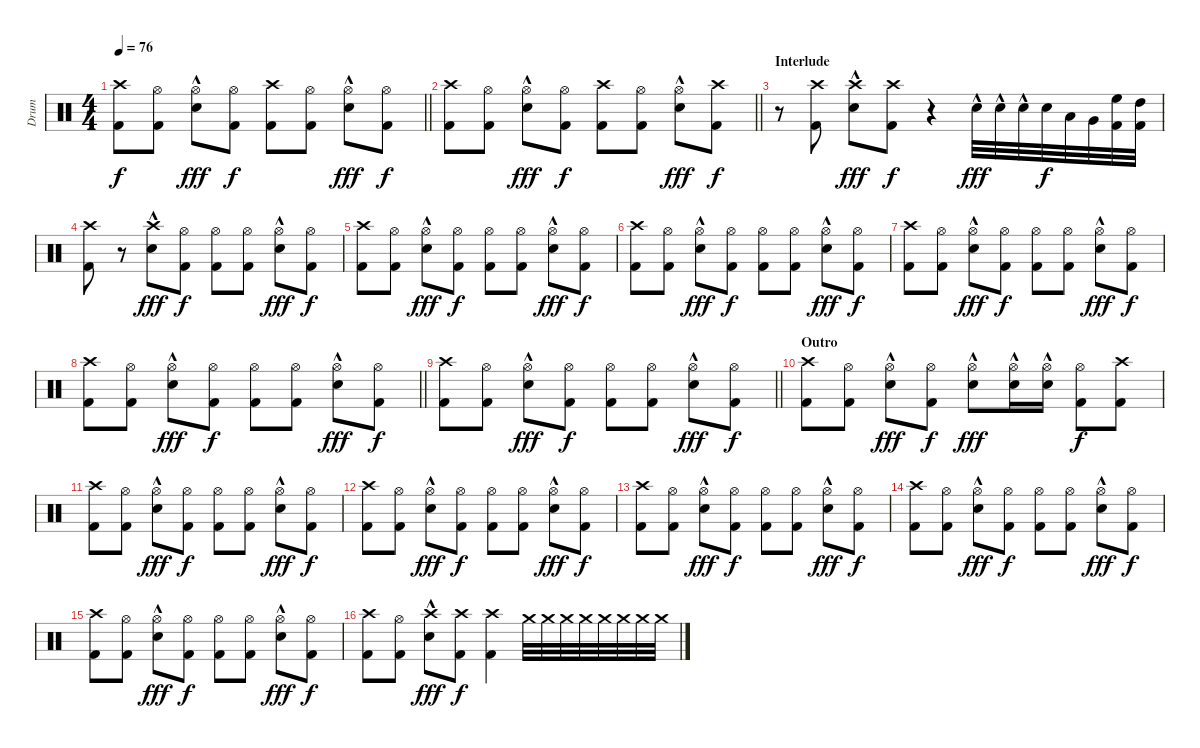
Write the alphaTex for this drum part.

\track ("Drum" "Drum") {instrument percussion}
\staff {score}
\articulation defaults
\ts (4 4)
\tempo 76
\clef neutral
\barLineRight lightlight
\ks c
("Crash high (hit)" "Kick (hit) 2").8{dy f} ("Hi-Hat (open)" "Kick (hit) 2").8 ("Hi-Hat (open)" "Electric Snare (hit)"{hac}).8{dy fff} ("Hi-Hat (open)" "Kick (hit) 2").8{dy f} ("Crash high (hit)" "Kick (hit) 2").8 ("Hi-Hat (open)" "Kick (hit) 2").8 ("Hi-Hat (open)" "Electric Snare (hit)"{hac}).8{dy fff} ("Hi-Hat (open)" "Kick (hit) 2").8{dy f} |
\barLineRight lightlight
("Crash high (hit)" "Kick (hit) 2").8 ("Hi-Hat (open)" "Kick (hit) 2").8 ("Hi-Hat (open)" "Electric Snare (hit)"{hac}).8{dy fff} ("Hi-Hat (open)" "Kick (hit) 2").8{dy f} ("Crash high (hit)" "Kick (hit) 2").8 ("Hi-Hat (open)" "Kick (hit) 2").8 ("Hi-Hat (open)" "Electric Snare (hit)"{hac}).8{dy fff} ("Crash high (hit)" "Kick (hit) 2").8{dy f} |
\section ("" "Interlude")
r.8 ("Crash high (hit)" "Kick (hit) 2").8 ("Crash high (hit)" "Electric Snare (hit)"{hac}).8{dy fff} ("Crash high (hit)" "Kick (hit) 2").8{dy f} r.4 "Electric Snare (hit)"{hac}.32{dy fff} "Electric Snare (hit)"{hac}.32 "Electric Snare (hit)"{hac}.32 "Snare (hit) 2".32{dy f} "Low Tom (hit)".32 "Very Low Tom (hit)".32 ("High Floor Tom (hit)" "Kick (hit) 2").32 ("High Tom (hit)" "Kick (hit) 2").32 |
("Crash high (hit)" "Kick (hit) 2").8 r.8 ("Crash high (hit)" "Electric Snare (hit)"{hac}).8{dy fff} ("Hi-Hat (open)" "Kick (hit) 2").8{dy f} ("Hi-Hat (open)" "Kick (hit) 2").8 ("Hi-Hat (open)" "Kick (hit) 2").8 ("Hi-Hat (open)" "Electric Snare (hit)"{hac}).8{dy fff} ("Hi-Hat (open)" "Kick (hit) 2").8{dy f} |
("Crash high (hit)" "Kick (hit) 2").8 ("Hi-Hat (open)" "Kick (hit) 2").8 ("Hi-Hat (open)" "Electric Snare (hit)"{hac}).8{dy fff} ("Hi-Hat (open)" "Kick (hit) 2").8{dy f} ("Hi-Hat (open)" "Kick (hit) 2").8 ("Hi-Hat (open)" "Kick (hit) 2").8 ("Hi-Hat (open)" "Electric Snare (hit)"{hac}).8{dy fff} ("Hi-Hat (open)" "Kick (hit) 2").8{dy f} |
("Crash high (hit)" "Kick (hit) 2").8 ("Hi-Hat (open)" "Kick (hit) 2").8 ("Hi-Hat (open)" "Electric Snare (hit)"{hac}).8{dy fff} ("Hi-Hat (open)" "Kick (hit) 2").8{dy f} ("Hi-Hat (open)" "Kick (hit) 2").8 ("Hi-Hat (open)" "Kick (hit) 2").8 ("Hi-Hat (open)" "Electric Snare (hit)"{hac}).8{dy fff} ("Hi-Hat (open)" "Kick (hit) 2").8{dy f} |
("Crash high (hit)" "Kick (hit) 2").8 ("Hi-Hat (open)" "Kick (hit) 2").8 ("Hi-Hat (open)" "Electric Snare (hit)"{hac}).8{dy fff} ("Hi-Hat (open)" "Kick (hit) 2").8{dy f} ("Hi-Hat (open)" "Kick (hit) 2").8 ("Hi-Hat (open)" "Kick (hit) 2").8 ("Hi-Hat (open)" "Electric Snare (hit)"{hac}).8{dy fff} ("Hi-Hat (open)" "Kick (hit) 2").8{dy f} |
\barLineRight lightlight
("Crash high (hit)" "Kick (hit) 2").8 ("Hi-Hat (open)" "Kick (hit) 2").8 ("Hi-Hat (open)" "Electric Snare (hit)"{hac}).8{dy fff} ("Hi-Hat (open)" "Kick (hit) 2").8{dy f} ("Hi-Hat (open)" "Kick (hit) 2").8 ("Hi-Hat (open)" "Kick (hit) 2").8 ("Hi-Hat (open)" "Electric Snare (hit)"{hac}).8{dy fff} ("Hi-Hat (open)" "Kick (hit) 2").8{dy f} |
\barLineRight lightlight
("Crash high (hit)" "Kick (hit) 2").8 ("Hi-Hat (open)" "Kick (hit) 2").8 ("Hi-Hat (open)" "Electric Snare (hit)"{hac}).8{dy fff} ("Hi-Hat (open)" "Kick (hit) 2").8{dy f} ("Hi-Hat (open)" "Kick (hit) 2").8 ("Hi-Hat (open)" "Kick (hit) 2").8 ("Hi-Hat (open)" "Electric Snare (hit)"{hac}).8{dy fff} ("Hi-Hat (open)" "Kick (hit) 2").8{dy f} |
\section ("" "Outro")
("Crash high (hit)" "Kick (hit) 2").8 ("Hi-Hat (open)" "Kick (hit) 2").8 ("Hi-Hat (open)" "Electric Snare (hit)"{hac}).8{dy fff} ("Hi-Hat (open)" "Kick (hit) 2").8{dy f} ("Hi-Hat (open)" "Electric Snare (hit)"{hac}).8{dy fff} ("Hi-Hat (open)" "Electric Snare (hit)"{hac}).16 ("Hi-Hat (open)" "Electric Snare (hit)"{hac}).16 ("Hi-Hat (open)" "Kick (hit) 2").8{dy f} ("Crash high (hit)" "Kick (hit) 2").8 |
("Crash high (hit)" "Kick (hit) 2").8 ("Hi-Hat (open)" "Kick (hit) 2").8 ("Hi-Hat (open)" "Electric Snare (hit)"{hac}).8{dy fff} ("Hi-Hat (open)" "Kick (hit) 2").8{dy f} ("Hi-Hat (open)" "Kick (hit) 2").8 ("Hi-Hat (open)" "Kick (hit) 2").8 ("Hi-Hat (open)" "Electric Snare (hit)"{hac}).8{dy fff} ("Hi-Hat (open)" "Kick (hit) 2").8{dy f} |
("Crash high (hit)" "Kick (hit) 2").8 ("Hi-Hat (open)" "Kick (hit) 2").8 ("Hi-Hat (open)" "Electric Snare (hit)"{hac}).8{dy fff} ("Hi-Hat (open)" "Kick (hit) 2").8{dy f} ("Hi-Hat (open)" "Kick (hit) 2").8 ("Hi-Hat (open)" "Kick (hit) 2").8 ("Hi-Hat (open)" "Electric Snare (hit)"{hac}).8{dy fff} ("Hi-Hat (open)" "Kick (hit) 2").8{dy f} |
("Crash high (hit)" "Kick (hit) 2").8 ("Hi-Hat (open)" "Kick (hit) 2").8 ("Hi-Hat (open)" "Electric Snare (hit)"{hac}).8{dy fff} ("Hi-Hat (open)" "Kick (hit) 2").8{dy f} ("Hi-Hat (open)" "Kick (hit) 2").8 ("Hi-Hat (open)" "Kick (hit) 2").8 ("Hi-Hat (open)" "Electric Snare (hit)"{hac}).8{dy fff} ("Hi-Hat (open)" "Kick (hit) 2").8{dy f} |
("Crash high (hit)" "Kick (hit) 2").8 ("Hi-Hat (open)" "Kick (hit) 2").8 ("Hi-Hat (open)" "Electric Snare (hit)"{hac}).8{dy fff} ("Hi-Hat (open)" "Kick (hit) 2").8{dy f} ("Hi-Hat (open)" "Kick (hit) 2").8 ("Hi-Hat (open)" "Kick (hit) 2").8 ("Hi-Hat (open)" "Electric Snare (hit)"{hac}).8{dy fff} ("Hi-Hat (open)" "Kick (hit) 2").8{dy f} |
("Crash high (hit)" "Kick (hit) 2").8 ("Hi-Hat (open)" "Kick (hit) 2").8 ("Hi-Hat (open)" "Electric Snare (hit)"{hac}).8{dy fff} ("Hi-Hat (open)" "Kick (hit) 2").8{dy f} ("Hi-Hat (open)" "Kick (hit) 2").8 ("Hi-Hat (open)" "Kick (hit) 2").8 ("Hi-Hat (open)" "Electric Snare (hit)"{hac}).8{dy fff} ("Hi-Hat (open)" "Kick (hit) 2").8{dy f} |
("Crash high (hit)" "Kick (hit) 2").8 ("Hi-Hat (open)" "Kick (hit) 2").8 ("Crash high (hit)" "Electric Snare (hit)"{hac}).8{dy fff} ("Crash high (hit)" "Kick (hit) 2").8{dy f} ("Crash high (hit)" "Kick (hit) 2").4 "Crash medium (hit)".32{volume 1} "Crash medium (hit)".32{volume 1} "Crash medium (hit)".32 "Crash medium (hit)".32 "Crash medium (hit)".32 "Crash medium (hit)".32 "Crash medium (hit)".32 "Crash medium (hit)".32
